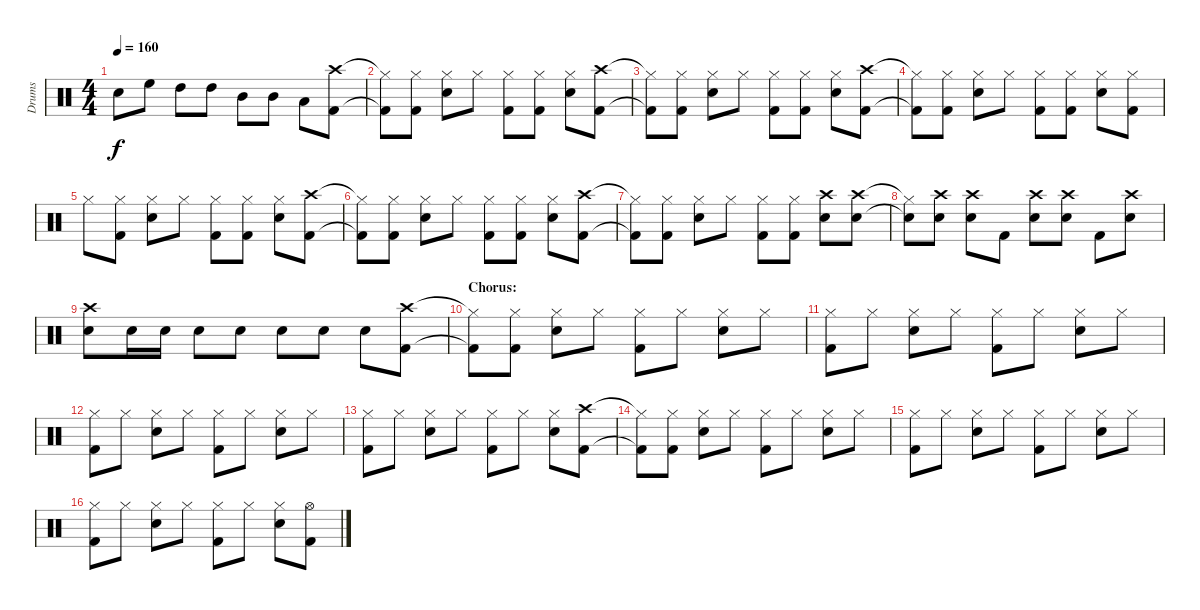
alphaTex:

\track ("Drums" "Drums") {instrument percussion}
\staff {score}
\articulation defaults
\ts (4 4)
\tempo 160
\clef neutral
\ks c "Electric Snare (hit)".8{dy f} "High Floor Tom (hit)".8 "High Tom (hit)".8 "High Tom (hit)".8 "Mid Tom (hit)".8 "Mid Tom (hit)".8 "Low Tom (hit)".8
("Crash high (hit)" "Kick (hit) 2").8 |
("Hi-Hat (closed)"{t} "Kick (hit) 2"{t}).8 ("Hi-Hat (closed)" "Kick (hit) 2").8 ("Hi-Hat (closed)" "Electric Snare (hit)").8 "Hi-Hat (closed)".8 ("Hi-Hat (closed)" "Kick (hit) 2").8 ("Hi-Hat (closed)" "Kick (hit) 2").8 ("Hi-Hat (closed)" "Electric Snare (hit)").8 ("Crash high (hit)" "Kick (hit) 2").8 |
("Hi-Hat (closed)"{t} "Kick (hit) 2"{t}).8 ("Hi-Hat (closed)" "Kick (hit) 2").8 ("Hi-Hat (closed)" "Electric Snare (hit)").8 "Hi-Hat (closed)".8 ("Hi-Hat (closed)" "Kick (hit) 2").8 ("Hi-Hat (closed)" "Kick (hit) 2").8 ("Hi-Hat (closed)" "Electric Snare (hit)").8 ("Crash high (hit)" "Kick (hit) 2").8 |
("Hi-Hat (closed)"{t} "Kick (hit) 2"{t}).8 ("Hi-Hat (closed)" "Kick (hit) 2").8 ("Hi-Hat (closed)" "Electric Snare (hit)").8 "Hi-Hat (closed)".8 ("Hi-Hat (closed)" "Kick (hit) 2").8 ("Hi-Hat (closed)" "Kick (hit) 2").8 ("Hi-Hat (closed)" "Electric Snare (hit)").8 ("Hi-Hat (closed)" "Kick (hit) 2").8 |
"Hi-Hat (closed)".8 ("Hi-Hat (closed)" "Kick (hit) 2").8 ("Hi-Hat (closed)" "Electric Snare (hit)").8 "Hi-Hat (closed)".8 ("Hi-Hat (closed)" "Kick (hit) 2").8 ("Hi-Hat (closed)" "Kick (hit) 2").8 ("Hi-Hat (closed)" "Electric Snare (hit)").8 ("Crash high (hit)" "Kick (hit) 2").8 |
("Hi-Hat (closed)"{t} "Kick (hit) 2"{t}).8 ("Hi-Hat (closed)" "Kick (hit) 2").8 ("Hi-Hat (closed)" "Electric Snare (hit)").8 "Hi-Hat (closed)".8 ("Hi-Hat (closed)" "Kick (hit) 2").8 ("Hi-Hat (closed)" "Kick (hit) 2").8 ("Hi-Hat (closed)" "Electric Snare (hit)").8 ("Crash high (hit)" "Kick (hit) 2").8 |
("Hi-Hat (closed)"{t} "Kick (hit) 2"{t}).8 ("Hi-Hat (closed)" "Kick (hit) 2").8 ("Hi-Hat (closed)" "Electric Snare (hit)").8 "Hi-Hat (closed)".8 ("Hi-Hat (closed)" "Kick (hit) 2").8 ("Hi-Hat (closed)" "Kick (hit) 2").8 ("Crash high (hit)" "Electric Snare (hit)").8 ("Crash high (hit)" "Electric Snare (hit)").8 |
("Hi-Hat (closed)"{t} "Snare (hit)"{t}).8 ("Crash high (hit)" "Electric Snare (hit)").8 ("Crash high (hit)" "Electric Snare (hit)").8 "Kick (hit) 2".8 ("Crash high (hit)" "Electric Snare (hit)").8 ("Crash high (hit)" "Electric Snare (hit)").8 "Kick (hit) 2".8 ("Crash high (hit)" "Electric Snare (hit)").8 |
("Crash high (hit)" "Electric Snare (hit)").8 "Electric Snare (hit)".16 "Electric Snare (hit)".16 "Electric Snare (hit)".8 "Electric Snare (hit)".8 "Electric Snare (hit)".8 "Electric Snare (hit)".8 "Electric Snare (hit)".8 ("Crash high (hit)" "Kick (hit) 2").8 |
\section ("" "Chorus:")
("Hi-Hat (closed)"{t} "Kick (hit) 2"{t}).8 ("Hi-Hat (closed)" "Kick (hit) 2").8 ("Hi-Hat (closed)" "Electric Snare (hit)").8 "Hi-Hat (closed)".8 ("Hi-Hat (closed)" "Kick (hit) 2").8 "Hi-Hat (closed)".8 ("Hi-Hat (closed)" "Electric Snare (hit)").8 "Hi-Hat (closed)".8 |
("Hi-Hat (closed)" "Kick (hit) 2").8 "Hi-Hat (closed)".8 ("Hi-Hat (closed)" "Electric Snare (hit)").8 "Hi-Hat (closed)".8 ("Hi-Hat (closed)" "Kick (hit) 2").8 "Hi-Hat (closed)".8 ("Hi-Hat (closed)" "Electric Snare (hit)").8 "Hi-Hat (closed)".8 |
("Hi-Hat (closed)" "Kick (hit) 2").8 "Hi-Hat (closed)".8 ("Hi-Hat (closed)" "Electric Snare (hit)").8 "Hi-Hat (closed)".8 ("Hi-Hat (closed)" "Kick (hit) 2").8 "Hi-Hat (closed)".8 ("Hi-Hat (closed)" "Electric Snare (hit)").8 "Hi-Hat (closed)".8 |
("Hi-Hat (closed)" "Kick (hit) 2").8 "Hi-Hat (closed)".8 ("Hi-Hat (closed)" "Electric Snare (hit)").8 "Hi-Hat (closed)".8 ("Hi-Hat (closed)" "Kick (hit) 2").8 "Hi-Hat (closed)".8 ("Hi-Hat (closed)" "Electric Snare (hit)").8 ("Crash high (hit)" "Kick (hit) 2").8 |
("Hi-Hat (closed)"{t} "Kick (hit) 2"{t}).8 ("Hi-Hat (closed)" "Kick (hit) 2").8 ("Hi-Hat (closed)" "Electric Snare (hit)").8 "Hi-Hat (closed)".8 ("Hi-Hat (closed)" "Kick (hit) 2").8 "Hi-Hat (closed)".8 ("Hi-Hat (closed)" "Electric Snare (hit)").8 "Hi-Hat (closed)".8 |
("Hi-Hat (closed)" "Kick (hit) 2").8 "Hi-Hat (closed)".8 ("Hi-Hat (closed)" "Electric Snare (hit)").8 "Hi-Hat (closed)".8 ("Hi-Hat (closed)" "Kick (hit) 2").8 "Hi-Hat (closed)".8 ("Hi-Hat (closed)" "Electric Snare (hit)").8 "Hi-Hat (closed)".8 |
("Hi-Hat (closed)" "Kick (hit) 2").8 "Hi-Hat (closed)".8 ("Hi-Hat (closed)" "Electric Snare (hit)").8 "Hi-Hat (closed)".8 ("Hi-Hat (closed)" "Kick (hit) 2").8 "Hi-Hat (closed)".8 ("Hi-Hat (closed)" "Electric Snare (hit)").8 ("Hi-Hat (open)" "Kick (hit) 2").8
